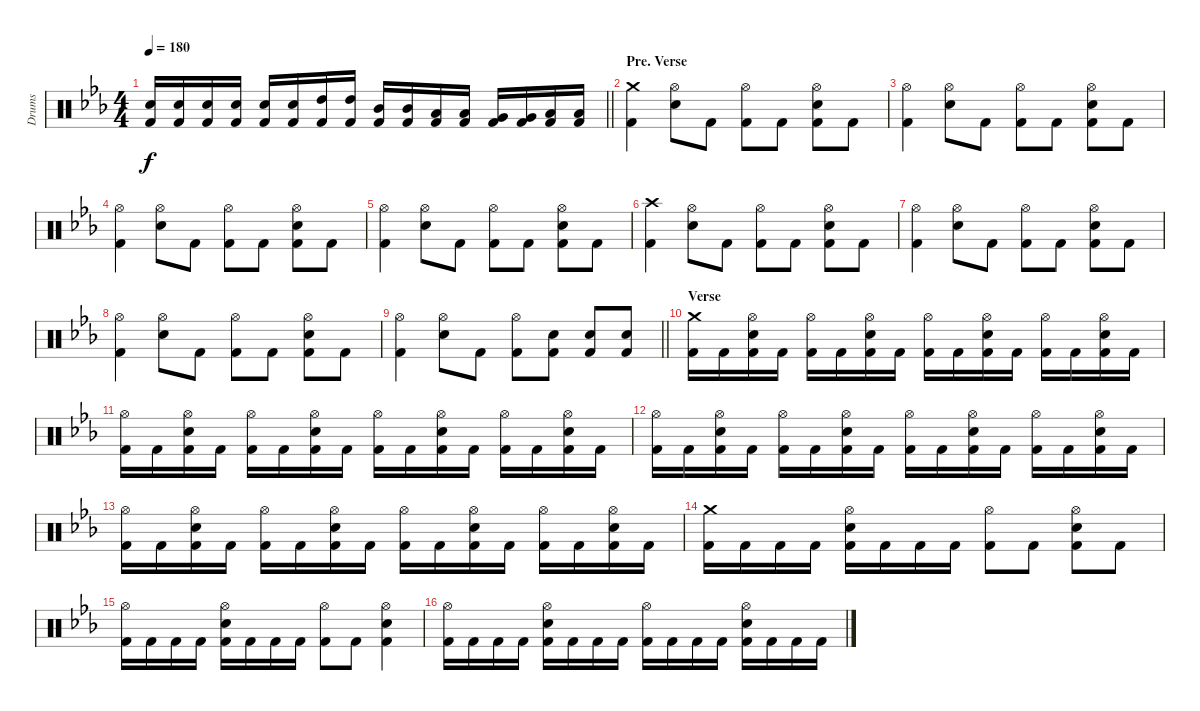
\track ("Drums" "Drums") {instrument percussion}
\staff {score}
\articulation defaults
\ts (4 4)
\tempo 180
\clef neutral
\barLineRight lightlight
\ks eb
("Snare (hit) 2" "Kick (hit) 2").16{dy f} ("Snare (hit) 2" "Kick (hit) 2").16 ("Snare (hit) 2" "Kick (hit) 2").16 ("Snare (hit) 2" "Kick (hit) 2").16 ("Snare (hit) 2" "Kick (hit) 2").16 ("Snare (hit) 2" "Kick (hit) 2").16 ("High Tom (hit)" "Kick (hit) 2").16 ("High Tom (hit)" "Kick (hit) 2").16 ("Mid Tom (hit)" "Kick (hit) 2").16 ("Mid Tom (hit)" "Kick (hit) 2").16 ("Low Tom (hit)" "Kick (hit) 2").16 ("Low Tom (hit)" "Kick (hit) 2").16 ("Very Low Tom (hit)" "Kick (hit) 2").16 ("Very Low Tom (hit)" "Kick (hit) 2").16 ("Low Floor Tom (hit)" "Kick (hit) 2").16 ("Low Floor Tom (hit)" "Kick (hit) 2").16 |
\section ("" "Pre. Verse")
("Crash medium (hit)" "Kick (hit) 2").4 ("Hi-Hat (open)" "Snare (hit) 2").8 "Kick (hit) 2".8 ("Hi-Hat (open)" "Kick (hit) 2").8 "Kick (hit) 2".8 ("Hi-Hat (open)" "Snare (hit) 2" "Kick (hit) 2").8 "Kick (hit) 2".8 |
("Hi-Hat (open)" "Kick (hit) 2").4 ("Hi-Hat (open)" "Snare (hit) 2").8 "Kick (hit) 2".8 ("Hi-Hat (open)" "Kick (hit) 2").8 "Kick (hit) 2".8 ("Hi-Hat (open)" "Snare (hit) 2" "Kick (hit) 2").8 "Kick (hit) 2".8 |
("Hi-Hat (open)" "Kick (hit) 2").4 ("Hi-Hat (open)" "Snare (hit) 2").8 "Kick (hit) 2".8 ("Hi-Hat (open)" "Kick (hit) 2").8 "Kick (hit) 2".8 ("Hi-Hat (open)" "Snare (hit) 2" "Kick (hit) 2").8 "Kick (hit) 2".8 |
("Hi-Hat (open)" "Kick (hit) 2").4 ("Hi-Hat (open)" "Snare (hit) 2").8 "Kick (hit) 2".8 ("Hi-Hat (open)" "Kick (hit) 2").8 "Kick (hit) 2".8 ("Hi-Hat (open)" "Snare (hit) 2" "Kick (hit) 2").8 "Kick (hit) 2".8 |
("Crash high (hit)" "Kick (hit) 2").4 ("Hi-Hat (open)" "Snare (hit) 2").8 "Kick (hit) 2".8 ("Hi-Hat (open)" "Kick (hit) 2").8 "Kick (hit) 2".8 ("Hi-Hat (open)" "Snare (hit) 2" "Kick (hit) 2").8 "Kick (hit) 2".8 |
("Hi-Hat (open)" "Kick (hit) 2").4 ("Hi-Hat (open)" "Snare (hit) 2").8 "Kick (hit) 2".8 ("Hi-Hat (open)" "Kick (hit) 2").8 "Kick (hit) 2".8 ("Hi-Hat (open)" "Snare (hit) 2" "Kick (hit) 2").8 "Kick (hit) 2".8 |
("Hi-Hat (open)" "Kick (hit) 2").4 ("Hi-Hat (open)" "Snare (hit) 2").8 "Kick (hit) 2".8 ("Hi-Hat (open)" "Kick (hit) 2").8 "Kick (hit) 2".8 ("Hi-Hat (open)" "Snare (hit) 2" "Kick (hit) 2").8 "Kick (hit) 2".8 |
\barLineRight lightlight
("Hi-Hat (open)" "Kick (hit) 2").4 ("Hi-Hat (open)" "Snare (hit) 2").8 "Kick (hit) 2".8 ("Hi-Hat (open)" "Kick (hit) 2").8 ("Snare (hit) 2" "Kick (hit) 2").8 ("Snare (hit) 2" "Kick (hit) 2").8 ("Snare (hit) 2" "Kick (hit) 2").8 |
\section ("" "Verse")
("Crash medium (hit)" "Kick (hit) 2").16 "Kick (hit) 2".16 ("Hi-Hat (open)" "Snare (hit) 2" "Kick (hit) 2").16 "Kick (hit) 2".16 ("Hi-Hat (open)" "Kick (hit) 2").16 "Kick (hit) 2".16 ("Hi-Hat (open)" "Snare (hit) 2" "Kick (hit) 2").16 "Kick (hit) 2".16 ("Hi-Hat (open)" "Kick (hit) 2").16 "Kick (hit) 2".16 ("Hi-Hat (open)" "Snare (hit) 2" "Kick (hit) 2").16 "Kick (hit) 2".16 ("Hi-Hat (open)" "Kick (hit) 2").16 "Kick (hit) 2".16 ("Hi-Hat (open)" "Snare (hit) 2" "Kick (hit) 2").16 "Kick (hit) 2".16 |
("Hi-Hat (open)" "Kick (hit) 2").16 "Kick (hit) 2".16 ("Hi-Hat (open)" "Snare (hit) 2" "Kick (hit) 2").16 "Kick (hit) 2".16 ("Hi-Hat (open)" "Kick (hit) 2").16 "Kick (hit) 2".16 ("Hi-Hat (open)" "Snare (hit) 2" "Kick (hit) 2").16 "Kick (hit) 2".16 ("Hi-Hat (open)" "Kick (hit) 2").16 "Kick (hit) 2".16 ("Hi-Hat (open)" "Snare (hit) 2" "Kick (hit) 2").16 "Kick (hit) 2".16 ("Hi-Hat (open)" "Kick (hit) 2").16 "Kick (hit) 2".16 ("Hi-Hat (open)" "Snare (hit) 2" "Kick (hit) 2").16 "Kick (hit) 2".16 |
("Hi-Hat (open)" "Kick (hit) 2").16 "Kick (hit) 2".16 ("Hi-Hat (open)" "Snare (hit) 2" "Kick (hit) 2").16 "Kick (hit) 2".16 ("Hi-Hat (open)" "Kick (hit) 2").16 "Kick (hit) 2".16 ("Hi-Hat (open)" "Snare (hit) 2" "Kick (hit) 2").16 "Kick (hit) 2".16 ("Hi-Hat (open)" "Kick (hit) 2").16 "Kick (hit) 2".16 ("Hi-Hat (open)" "Snare (hit) 2" "Kick (hit) 2").16 "Kick (hit) 2".16 ("Hi-Hat (open)" "Kick (hit) 2").16 "Kick (hit) 2".16 ("Hi-Hat (open)" "Snare (hit) 2" "Kick (hit) 2").16 "Kick (hit) 2".16 |
("Hi-Hat (open)" "Kick (hit) 2").16 "Kick (hit) 2".16 ("Hi-Hat (open)" "Snare (hit) 2" "Kick (hit) 2").16 "Kick (hit) 2".16 ("Hi-Hat (open)" "Kick (hit) 2").16 "Kick (hit) 2".16 ("Hi-Hat (open)" "Snare (hit) 2" "Kick (hit) 2").16 "Kick (hit) 2".16 ("Hi-Hat (open)" "Kick (hit) 2").16 "Kick (hit) 2".16 ("Hi-Hat (open)" "Snare (hit) 2" "Kick (hit) 2").16 "Kick (hit) 2".16 ("Hi-Hat (open)" "Kick (hit) 2").16 "Kick (hit) 2".16 ("Hi-Hat (open)" "Snare (hit) 2" "Kick (hit) 2").16 "Kick (hit) 2".16 |
("Crash medium (hit)" "Kick (hit) 2").16 "Kick (hit) 2".16 "Kick (hit) 2".16 "Kick (hit) 2".16 ("Hi-Hat (open)" "Snare (hit) 2" "Kick (hit) 2").16 "Kick (hit) 2".16 "Kick (hit) 2".16 "Kick (hit) 2".16 ("Hi-Hat (open)" "Kick (hit) 2").8 "Kick (hit) 2".8 ("Hi-Hat (open)" "Snare (hit) 2" "Kick (hit) 2").8 "Kick (hit) 2".8 |
("Hi-Hat (open)" "Kick (hit) 2").16 "Kick (hit) 2".16 "Kick (hit) 2".16 "Kick (hit) 2".16 ("Hi-Hat (open)" "Snare (hit) 2" "Kick (hit) 2").16 "Kick (hit) 2".16 "Kick (hit) 2".16 "Kick (hit) 2".16 ("Hi-Hat (open)" "Kick (hit) 2").8 "Kick (hit) 2".8 ("Hi-Hat (open)" "Snare (hit) 2" "Kick (hit) 2").4 |
("Hi-Hat (open)" "Kick (hit) 2").16 "Kick (hit) 2".16 "Kick (hit) 2".16 "Kick (hit) 2".16 ("Hi-Hat (open)" "Snare (hit) 2" "Kick (hit) 2").16 "Kick (hit) 2".16 "Kick (hit) 2".16 "Kick (hit) 2".16 ("Hi-Hat (open)" "Kick (hit) 2").16 "Kick (hit) 2".16 "Kick (hit) 2".16 "Kick (hit) 2".16 ("Hi-Hat (open)" "Snare (hit) 2" "Kick (hit) 2").16 "Kick (hit) 2".16 "Kick (hit) 2".16 "Kick (hit) 2".16
